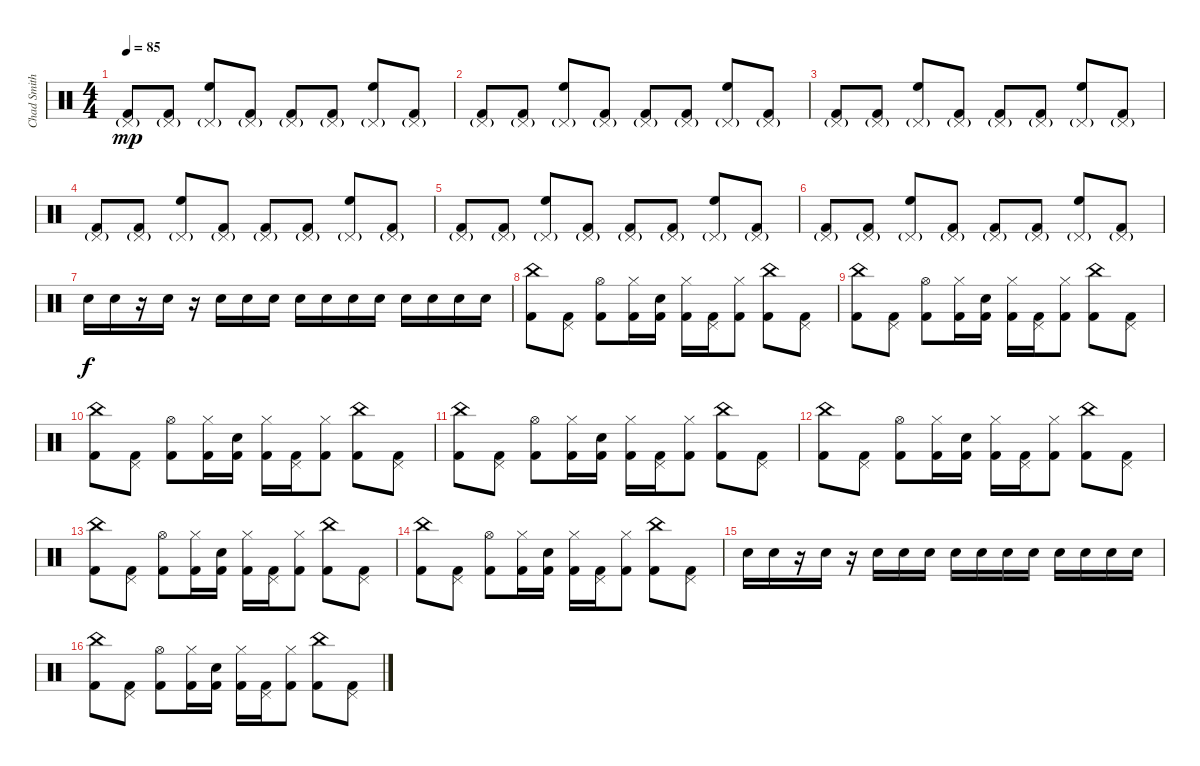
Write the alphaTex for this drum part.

\track ("Chad Smith - Drums" "Chad Smith") {instrument percussion}
\staff {score}
\articulation defaults
\ts (4 4)
\tempo 85
\clef neutral
\ks c
("Pedal Hi-Hat (hit)"{g} "Kick (hit) 2").8{dy mp} ("Pedal Hi-Hat (hit)"{g} "Kick (hit) 2").8 ("Pedal Hi-Hat (hit)"{g} "High Floor Tom (hit)").8 ("Pedal Hi-Hat (hit)"{g} "Kick (hit) 2").8 ("Pedal Hi-Hat (hit)"{g} "Kick (hit) 2").8 ("Pedal Hi-Hat (hit)"{g} "Kick (hit) 2").8 ("Pedal Hi-Hat (hit)"{g} "High Floor Tom (hit)").8 ("Pedal Hi-Hat (hit)"{g} "Kick (hit) 2").8 |
("Pedal Hi-Hat (hit)"{g} "Kick (hit) 2").8 ("Pedal Hi-Hat (hit)"{g} "Kick (hit) 2").8 ("Pedal Hi-Hat (hit)"{g} "High Floor Tom (hit)").8 ("Pedal Hi-Hat (hit)"{g} "Kick (hit) 2").8 ("Pedal Hi-Hat (hit)"{g} "Kick (hit) 2").8 ("Pedal Hi-Hat (hit)"{g} "Kick (hit) 2").8 ("Pedal Hi-Hat (hit)"{g} "High Floor Tom (hit)").8 ("Pedal Hi-Hat (hit)"{g} "Kick (hit) 2").8 |
("Pedal Hi-Hat (hit)"{g} "Kick (hit) 2").8 ("Pedal Hi-Hat (hit)"{g} "Kick (hit) 2").8 ("Pedal Hi-Hat (hit)"{g} "High Floor Tom (hit)").8 ("Pedal Hi-Hat (hit)"{g} "Kick (hit) 2").8 ("Pedal Hi-Hat (hit)"{g} "Kick (hit) 2").8 ("Pedal Hi-Hat (hit)"{g} "Kick (hit) 2").8 ("Pedal Hi-Hat (hit)"{g} "High Floor Tom (hit)").8 ("Pedal Hi-Hat (hit)"{g} "Kick (hit) 2").8 |
("Pedal Hi-Hat (hit)"{g} "Kick (hit) 2").8 ("Pedal Hi-Hat (hit)"{g} "Kick (hit) 2").8 ("Pedal Hi-Hat (hit)"{g} "High Floor Tom (hit)").8 ("Pedal Hi-Hat (hit)"{g} "Kick (hit) 2").8 ("Pedal Hi-Hat (hit)"{g} "Kick (hit) 2").8 ("Pedal Hi-Hat (hit)"{g} "Kick (hit) 2").8 ("Pedal Hi-Hat (hit)"{g} "High Floor Tom (hit)").8 ("Pedal Hi-Hat (hit)"{g} "Kick (hit) 2").8 |
("Pedal Hi-Hat (hit)"{g} "Kick (hit) 2").8 ("Pedal Hi-Hat (hit)"{g} "Kick (hit) 2").8 ("Pedal Hi-Hat (hit)"{g} "High Floor Tom (hit)").8 ("Pedal Hi-Hat (hit)"{g} "Kick (hit) 2").8 ("Pedal Hi-Hat (hit)"{g} "Kick (hit) 2").8 ("Pedal Hi-Hat (hit)"{g} "Kick (hit) 2").8 ("Pedal Hi-Hat (hit)"{g} "High Floor Tom (hit)").8 ("Pedal Hi-Hat (hit)"{g} "Kick (hit) 2").8 |
("Pedal Hi-Hat (hit)"{g} "Kick (hit) 2").8 ("Pedal Hi-Hat (hit)"{g} "Kick (hit) 2").8 ("Pedal Hi-Hat (hit)"{g} "High Floor Tom (hit)").8 ("Pedal Hi-Hat (hit)"{g} "Kick (hit) 2").8 ("Pedal Hi-Hat (hit)"{g} "Kick (hit) 2").8 ("Pedal Hi-Hat (hit)"{g} "Kick (hit) 2").8 ("Pedal Hi-Hat (hit)"{g} "High Floor Tom (hit)").8 ("Pedal Hi-Hat (hit)"{g} "Kick (hit) 2").8 |
"Snare (hit) 2".16{dy f} "Snare (hit) 2".16 r.16 "Snare (hit) 2".16 r.16 "Snare (hit) 2".16 "Snare (hit) 2".16 "Snare (hit) 2".16 "Snare (hit) 2".16 "Snare (hit) 2".16 "Snare (hit) 2".16 "Snare (hit) 2".16 "Snare (hit) 2".16 "Snare (hit) 2".16 "Snare (hit) 2".16 "Snare (hit) 2".16 |
("China (hit)" "Kick (hit) 2").8 ("Pedal Hi-Hat (hit)" "Kick (hit) 2").8 ("Hi-Hat (open)" "Kick (hit) 2").8 ("Hi-Hat (closed)" "Kick (hit) 2").16 ("Electric Snare (hit)" "Kick (hit) 2").16 ("Hi-Hat (closed)" "Kick (hit) 2").16 ("Pedal Hi-Hat (hit)" "Kick (hit) 2").16 ("Hi-Hat (closed)" "Kick (hit) 2").8 ("China (hit)" "Kick (hit) 2").8 ("Pedal Hi-Hat (hit)" "Kick (hit) 2").8 |
("China (hit)" "Kick (hit) 2").8 ("Pedal Hi-Hat (hit)" "Kick (hit) 2").8 ("Hi-Hat (open)" "Kick (hit) 2").8 ("Hi-Hat (closed)" "Kick (hit) 2").16 ("Electric Snare (hit)" "Kick (hit) 2").16 ("Hi-Hat (closed)" "Kick (hit) 2").16 ("Pedal Hi-Hat (hit)" "Kick (hit) 2").16 ("Hi-Hat (closed)" "Kick (hit) 2").8 ("China (hit)" "Kick (hit) 2").8 ("Pedal Hi-Hat (hit)" "Kick (hit) 2").8 |
("China (hit)" "Kick (hit) 2").8 ("Pedal Hi-Hat (hit)" "Kick (hit) 2").8 ("Hi-Hat (open)" "Kick (hit) 2").8 ("Hi-Hat (closed)" "Kick (hit) 2").16 ("Electric Snare (hit)" "Kick (hit) 2").16 ("Hi-Hat (closed)" "Kick (hit) 2").16 ("Pedal Hi-Hat (hit)" "Kick (hit) 2").16 ("Hi-Hat (closed)" "Kick (hit) 2").8 ("China (hit)" "Kick (hit) 2").8 ("Pedal Hi-Hat (hit)" "Kick (hit) 2").8 |
("China (hit)" "Kick (hit) 2").8 ("Pedal Hi-Hat (hit)" "Kick (hit) 2").8 ("Hi-Hat (open)" "Kick (hit) 2").8 ("Hi-Hat (closed)" "Kick (hit) 2").16 ("Electric Snare (hit)" "Kick (hit) 2").16 ("Hi-Hat (closed)" "Kick (hit) 2").16 ("Pedal Hi-Hat (hit)" "Kick (hit) 2").16 ("Hi-Hat (closed)" "Kick (hit) 2").8 ("China (hit)" "Kick (hit) 2").8 ("Pedal Hi-Hat (hit)" "Kick (hit) 2").8 |
("China (hit)" "Kick (hit) 2").8 ("Pedal Hi-Hat (hit)" "Kick (hit) 2").8 ("Hi-Hat (open)" "Kick (hit) 2").8 ("Hi-Hat (closed)" "Kick (hit) 2").16 ("Electric Snare (hit)" "Kick (hit) 2").16 ("Hi-Hat (closed)" "Kick (hit) 2").16 ("Pedal Hi-Hat (hit)" "Kick (hit) 2").16 ("Hi-Hat (closed)" "Kick (hit) 2").8 ("China (hit)" "Kick (hit) 2").8 ("Pedal Hi-Hat (hit)" "Kick (hit) 2").8 |
("China (hit)" "Kick (hit) 2").8 ("Pedal Hi-Hat (hit)" "Kick (hit) 2").8 ("Hi-Hat (open)" "Kick (hit) 2").8 ("Hi-Hat (closed)" "Kick (hit) 2").16 ("Electric Snare (hit)" "Kick (hit) 2").16 ("Hi-Hat (closed)" "Kick (hit) 2").16 ("Pedal Hi-Hat (hit)" "Kick (hit) 2").16 ("Hi-Hat (closed)" "Kick (hit) 2").8 ("China (hit)" "Kick (hit) 2").8 ("Pedal Hi-Hat (hit)" "Kick (hit) 2").8 |
("China (hit)" "Kick (hit) 2").8 ("Pedal Hi-Hat (hit)" "Kick (hit) 2").8 ("Hi-Hat (open)" "Kick (hit) 2").8 ("Hi-Hat (closed)" "Kick (hit) 2").16 ("Electric Snare (hit)" "Kick (hit) 2").16 ("Hi-Hat (closed)" "Kick (hit) 2").16 ("Pedal Hi-Hat (hit)" "Kick (hit) 2").16 ("Hi-Hat (closed)" "Kick (hit) 2").8 ("China (hit)" "Kick (hit) 2").8 ("Pedal Hi-Hat (hit)" "Kick (hit) 2").8 |
"Snare (hit) 2".16 "Snare (hit) 2".16 r.16 "Snare (hit) 2".16 r.16 "Snare (hit) 2".16 "Snare (hit) 2".16 "Snare (hit) 2".16 "Snare (hit) 2".16 "Snare (hit) 2".16 "Snare (hit) 2".16 "Snare (hit) 2".16 "Snare (hit) 2".16 "Snare (hit) 2".16 "Snare (hit) 2".16 "Snare (hit) 2".16 |
("China (hit)" "Kick (hit) 2").8 ("Pedal Hi-Hat (hit)" "Kick (hit) 2").8 ("Hi-Hat (open)" "Kick (hit) 2").8 ("Hi-Hat (closed)" "Kick (hit) 2").16 ("Electric Snare (hit)" "Kick (hit) 2").16 ("Hi-Hat (closed)" "Kick (hit) 2").16 ("Pedal Hi-Hat (hit)" "Kick (hit) 2").16 ("Hi-Hat (closed)" "Kick (hit) 2").8 ("China (hit)" "Kick (hit) 2").8 ("Pedal Hi-Hat (hit)" "Kick (hit) 2").8
